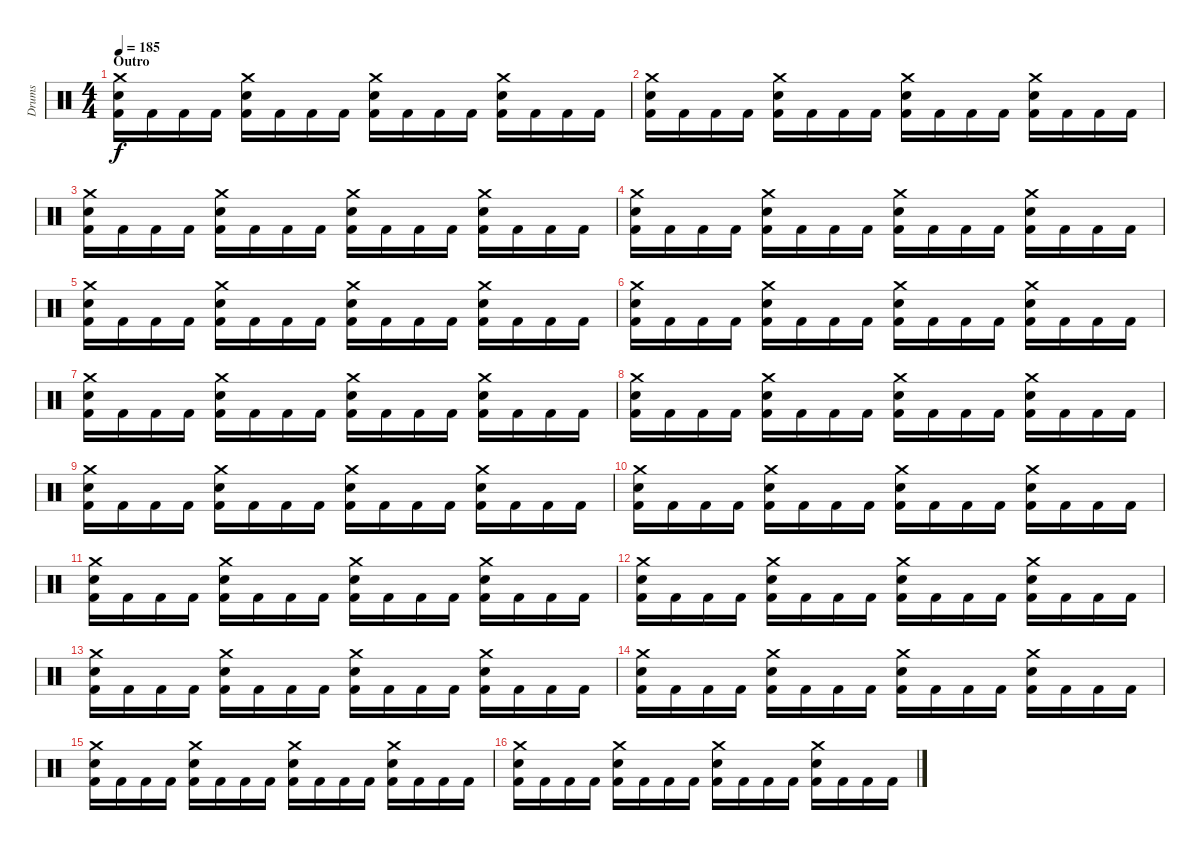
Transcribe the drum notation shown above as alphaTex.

\track ("Drums" "Drums") {instrument percussion}
\staff {score}
\articulation defaults
\ts (4 4)
\section ("" "Outro")
\tempo 185
\clef neutral
\ks c
("Crash medium (hit)" "Snare (hit) 2" "Kick (hit) 2").16{dy f} "Kick (hit) 2".16 "Kick (hit) 2".16 "Kick (hit) 2".16 ("Crash medium (hit)" "Snare (hit) 2" "Kick (hit) 2").16 "Kick (hit) 2".16 "Kick (hit) 2".16 "Kick (hit) 2".16 ("Crash medium (hit)" "Snare (hit) 2" "Kick (hit) 2").16 "Kick (hit) 2".16 "Kick (hit) 2".16 "Kick (hit) 2".16 ("Crash medium (hit)" "Snare (hit) 2" "Kick (hit) 2").16 "Kick (hit) 2".16 "Kick (hit) 2".16 "Kick (hit) 2".16 |
("Crash medium (hit)" "Snare (hit) 2" "Kick (hit) 2").16 "Kick (hit) 2".16 "Kick (hit) 2".16 "Kick (hit) 2".16 ("Crash medium (hit)" "Snare (hit) 2" "Kick (hit) 2").16 "Kick (hit) 2".16 "Kick (hit) 2".16 "Kick (hit) 2".16 ("Crash medium (hit)" "Snare (hit) 2" "Kick (hit) 2").16 "Kick (hit) 2".16 "Kick (hit) 2".16 "Kick (hit) 2".16 ("Crash medium (hit)" "Snare (hit) 2" "Kick (hit) 2").16 "Kick (hit) 2".16 "Kick (hit) 2".16 "Kick (hit) 2".16 |
("Crash medium (hit)" "Snare (hit) 2" "Kick (hit) 2").16 "Kick (hit) 2".16 "Kick (hit) 2".16 "Kick (hit) 2".16 ("Crash medium (hit)" "Snare (hit) 2" "Kick (hit) 2").16 "Kick (hit) 2".16 "Kick (hit) 2".16 "Kick (hit) 2".16 ("Crash medium (hit)" "Snare (hit) 2" "Kick (hit) 2").16 "Kick (hit) 2".16 "Kick (hit) 2".16 "Kick (hit) 2".16 ("Crash medium (hit)" "Snare (hit) 2" "Kick (hit) 2").16 "Kick (hit) 2".16 "Kick (hit) 2".16 "Kick (hit) 2".16 |
("Crash medium (hit)" "Snare (hit) 2" "Kick (hit) 2").16 "Kick (hit) 2".16 "Kick (hit) 2".16 "Kick (hit) 2".16 ("Crash medium (hit)" "Snare (hit) 2" "Kick (hit) 2").16 "Kick (hit) 2".16 "Kick (hit) 2".16 "Kick (hit) 2".16 ("Crash medium (hit)" "Snare (hit) 2" "Kick (hit) 2").16 "Kick (hit) 2".16 "Kick (hit) 2".16 "Kick (hit) 2".16 ("Crash medium (hit)" "Snare (hit) 2" "Kick (hit) 2").16 "Kick (hit) 2".16 "Kick (hit) 2".16 "Kick (hit) 2".16 |
("Crash medium (hit)" "Snare (hit) 2" "Kick (hit) 2").16 "Kick (hit) 2".16 "Kick (hit) 2".16 "Kick (hit) 2".16 ("Crash medium (hit)" "Snare (hit) 2" "Kick (hit) 2").16 "Kick (hit) 2".16 "Kick (hit) 2".16 "Kick (hit) 2".16 ("Crash medium (hit)" "Snare (hit) 2" "Kick (hit) 2").16 "Kick (hit) 2".16 "Kick (hit) 2".16 "Kick (hit) 2".16 ("Crash medium (hit)" "Snare (hit) 2" "Kick (hit) 2").16 "Kick (hit) 2".16 "Kick (hit) 2".16 "Kick (hit) 2".16 |
("Crash medium (hit)" "Snare (hit) 2" "Kick (hit) 2").16 "Kick (hit) 2".16 "Kick (hit) 2".16 "Kick (hit) 2".16 ("Crash medium (hit)" "Snare (hit) 2" "Kick (hit) 2").16 "Kick (hit) 2".16 "Kick (hit) 2".16 "Kick (hit) 2".16 ("Crash medium (hit)" "Snare (hit) 2" "Kick (hit) 2").16 "Kick (hit) 2".16 "Kick (hit) 2".16 "Kick (hit) 2".16 ("Crash medium (hit)" "Snare (hit) 2" "Kick (hit) 2").16 "Kick (hit) 2".16 "Kick (hit) 2".16 "Kick (hit) 2".16 |
("Crash medium (hit)" "Snare (hit) 2" "Kick (hit) 2").16 "Kick (hit) 2".16 "Kick (hit) 2".16 "Kick (hit) 2".16 ("Crash medium (hit)" "Snare (hit) 2" "Kick (hit) 2").16 "Kick (hit) 2".16 "Kick (hit) 2".16 "Kick (hit) 2".16 ("Crash medium (hit)" "Snare (hit) 2" "Kick (hit) 2").16 "Kick (hit) 2".16 "Kick (hit) 2".16 "Kick (hit) 2".16 ("Crash medium (hit)" "Snare (hit) 2" "Kick (hit) 2").16 "Kick (hit) 2".16 "Kick (hit) 2".16 "Kick (hit) 2".16 |
("Crash medium (hit)" "Snare (hit) 2" "Kick (hit) 2").16 "Kick (hit) 2".16 "Kick (hit) 2".16 "Kick (hit) 2".16 ("Crash medium (hit)" "Snare (hit) 2" "Kick (hit) 2").16 "Kick (hit) 2".16 "Kick (hit) 2".16 "Kick (hit) 2".16 ("Crash medium (hit)" "Snare (hit) 2" "Kick (hit) 2").16 "Kick (hit) 2".16 "Kick (hit) 2".16 "Kick (hit) 2".16 ("Crash medium (hit)" "Snare (hit) 2" "Kick (hit) 2").16 "Kick (hit) 2".16 "Kick (hit) 2".16 "Kick (hit) 2".16 |
("Crash medium (hit)" "Snare (hit) 2" "Kick (hit) 2").16 "Kick (hit) 2".16 "Kick (hit) 2".16 "Kick (hit) 2".16 ("Crash medium (hit)" "Snare (hit) 2" "Kick (hit) 2").16 "Kick (hit) 2".16 "Kick (hit) 2".16 "Kick (hit) 2".16 ("Crash medium (hit)" "Snare (hit) 2" "Kick (hit) 2").16 "Kick (hit) 2".16 "Kick (hit) 2".16 "Kick (hit) 2".16 ("Crash medium (hit)" "Snare (hit) 2" "Kick (hit) 2").16 "Kick (hit) 2".16 "Kick (hit) 2".16 "Kick (hit) 2".16 |
("Crash medium (hit)" "Snare (hit) 2" "Kick (hit) 2").16 "Kick (hit) 2".16 "Kick (hit) 2".16 "Kick (hit) 2".16 ("Crash medium (hit)" "Snare (hit) 2" "Kick (hit) 2").16 "Kick (hit) 2".16 "Kick (hit) 2".16 "Kick (hit) 2".16 ("Crash medium (hit)" "Snare (hit) 2" "Kick (hit) 2").16 "Kick (hit) 2".16 "Kick (hit) 2".16 "Kick (hit) 2".16 ("Crash medium (hit)" "Snare (hit) 2" "Kick (hit) 2").16 "Kick (hit) 2".16 "Kick (hit) 2".16 "Kick (hit) 2".16 |
("Crash medium (hit)" "Snare (hit) 2" "Kick (hit) 2").16 "Kick (hit) 2".16 "Kick (hit) 2".16 "Kick (hit) 2".16 ("Crash medium (hit)" "Snare (hit) 2" "Kick (hit) 2").16 "Kick (hit) 2".16 "Kick (hit) 2".16 "Kick (hit) 2".16 ("Crash medium (hit)" "Snare (hit) 2" "Kick (hit) 2").16 "Kick (hit) 2".16 "Kick (hit) 2".16 "Kick (hit) 2".16 ("Crash medium (hit)" "Snare (hit) 2" "Kick (hit) 2").16 "Kick (hit) 2".16 "Kick (hit) 2".16 "Kick (hit) 2".16 |
("Crash medium (hit)" "Snare (hit) 2" "Kick (hit) 2").16 "Kick (hit) 2".16 "Kick (hit) 2".16 "Kick (hit) 2".16 ("Crash medium (hit)" "Snare (hit) 2" "Kick (hit) 2").16 "Kick (hit) 2".16 "Kick (hit) 2".16 "Kick (hit) 2".16 ("Crash medium (hit)" "Snare (hit) 2" "Kick (hit) 2").16 "Kick (hit) 2".16 "Kick (hit) 2".16 "Kick (hit) 2".16 ("Crash medium (hit)" "Snare (hit) 2" "Kick (hit) 2").16 "Kick (hit) 2".16 "Kick (hit) 2".16 "Kick (hit) 2".16 |
("Crash medium (hit)" "Snare (hit) 2" "Kick (hit) 2").16 "Kick (hit) 2".16 "Kick (hit) 2".16 "Kick (hit) 2".16 ("Crash medium (hit)" "Snare (hit) 2" "Kick (hit) 2").16 "Kick (hit) 2".16 "Kick (hit) 2".16 "Kick (hit) 2".16 ("Crash medium (hit)" "Snare (hit) 2" "Kick (hit) 2").16 "Kick (hit) 2".16 "Kick (hit) 2".16 "Kick (hit) 2".16 ("Crash medium (hit)" "Snare (hit) 2" "Kick (hit) 2").16 "Kick (hit) 2".16 "Kick (hit) 2".16 "Kick (hit) 2".16 |
("Crash medium (hit)" "Snare (hit) 2" "Kick (hit) 2").16 "Kick (hit) 2".16 "Kick (hit) 2".16 "Kick (hit) 2".16 ("Crash medium (hit)" "Snare (hit) 2" "Kick (hit) 2").16 "Kick (hit) 2".16 "Kick (hit) 2".16 "Kick (hit) 2".16 ("Crash medium (hit)" "Snare (hit) 2" "Kick (hit) 2").16 "Kick (hit) 2".16 "Kick (hit) 2".16 "Kick (hit) 2".16 ("Crash medium (hit)" "Snare (hit) 2" "Kick (hit) 2").16 "Kick (hit) 2".16 "Kick (hit) 2".16 "Kick (hit) 2".16 |
("Crash medium (hit)" "Snare (hit) 2" "Kick (hit) 2").16 "Kick (hit) 2".16 "Kick (hit) 2".16 "Kick (hit) 2".16 ("Crash medium (hit)" "Snare (hit) 2" "Kick (hit) 2").16 "Kick (hit) 2".16 "Kick (hit) 2".16 "Kick (hit) 2".16 ("Crash medium (hit)" "Snare (hit) 2" "Kick (hit) 2").16 "Kick (hit) 2".16 "Kick (hit) 2".16 "Kick (hit) 2".16 ("Crash medium (hit)" "Snare (hit) 2" "Kick (hit) 2").16 "Kick (hit) 2".16 "Kick (hit) 2".16 "Kick (hit) 2".16 |
("Crash medium (hit)" "Snare (hit) 2" "Kick (hit) 2").16 "Kick (hit) 2".16 "Kick (hit) 2".16 "Kick (hit) 2".16 ("Crash medium (hit)" "Snare (hit) 2" "Kick (hit) 2").16 "Kick (hit) 2".16 "Kick (hit) 2".16 "Kick (hit) 2".16 ("Crash medium (hit)" "Snare (hit) 2" "Kick (hit) 2").16 "Kick (hit) 2".16 "Kick (hit) 2".16 "Kick (hit) 2".16 ("Crash medium (hit)" "Snare (hit) 2" "Kick (hit) 2").16 "Kick (hit) 2".16 "Kick (hit) 2".16 "Kick (hit) 2".16
